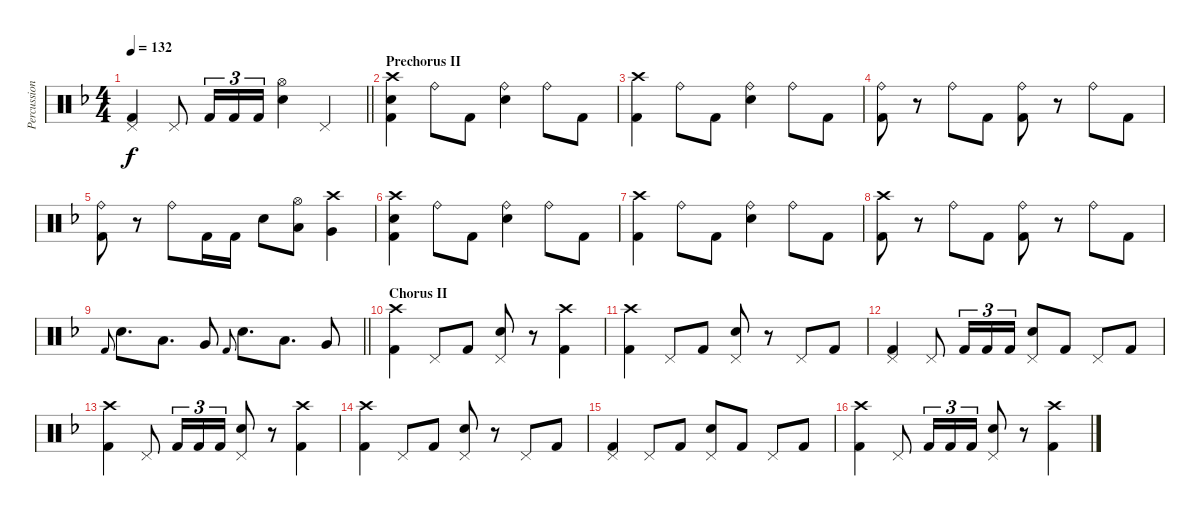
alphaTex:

\track ("Percussion" "Percussion") {instrument percussion}
\staff {score}
\articulation defaults
\ts (4 4)
\tempo 132
\clef neutral
\barLineRight lightlight
\ks dminor
("Pedal Hi-Hat (hit)" "Kick (hit) 2").4{dy f} "Pedal Hi-Hat (hit)".8 "Kick (hit) 2".16{tu (3 2)} "Kick (hit) 2".16{tu (3 2)} "Kick (hit) 2".16{tu (3 2)} ("Hi-Hat (open)" "Electric Snare (hit)").4 "Pedal Hi-Hat (hit)".4 |
\section ("" "Prechorus II")
("Crash high (hit)" "Electric Snare (hit)" "Kick (hit) 2").4 "Ride (bell)".8 "Kick (hit) 2".8 ("Ride (bell)" "Electric Snare (hit)").4 "Ride (bell)".8 "Kick (hit) 2".8 |
("Crash high (hit)" "Kick (hit) 2").4 "Ride (bell)".8 "Kick (hit) 2".8 ("Ride (bell)" "Electric Snare (hit)").4 "Ride (bell)".8 "Kick (hit) 2".8 |
("Ride (bell)" "Kick (hit) 2").8 r.8 "Ride (bell)".8 "Kick (hit) 2".8 ("Ride (bell)" "Kick (hit) 2").8 r.8 "Ride (bell)".8 "Kick (hit) 2".8 |
("Ride (bell)" "Kick (hit) 2").8 r.8 "Ride (bell)".8 "Kick (hit) 2".16 "Kick (hit) 2".16 "Electric Snare (hit)".8 ("Hi-Hat (open)" "Low Tom (hit)").8 ("Crash high (hit)" "Very Low Tom (hit)").4 |
("Crash high (hit)" "Electric Snare (hit)" "Kick (hit) 2").4 "Ride (bell)".8 "Kick (hit) 2".8 ("Ride (bell)" "Electric Snare (hit)").4 "Ride (bell)".8 "Kick (hit) 2".8 |
("Crash high (hit)" "Kick (hit) 2").4 "Ride (bell)".8 "Kick (hit) 2".8 ("Ride (bell)" "Electric Snare (hit)").4 "Ride (bell)".8 "Kick (hit) 2".8 |
("Crash high (hit)" "Kick (hit) 2").8 r.8 "Ride (bell)".8 "Kick (hit) 2".8 ("Ride (bell)" "Kick (hit) 2").8 r.8 "Ride (bell)".8 "Kick (hit) 2".8 |
\barLineRight lightlight "Kick (hit) 2".8{gr onbeat} "Electric Snare (hit)".8{d} "Low Tom (hit)".8{d} "Very Low Tom (hit)".8 "Kick (hit) 2".8{gr onbeat} "Electric Snare (hit)".8{d} "Low Tom (hit)".8{d} "Very Low Tom (hit)".8
|
\section ("" "Chorus II")
("Crash high (hit)" "Kick (hit) 2").4 "Pedal Hi-Hat (hit)".8 "Kick (hit) 2".8 ("Pedal Hi-Hat (hit)" "Electric Snare (hit)").8 r.8 ("Crash high (hit)" "Kick (hit) 2").4 |
("Crash high (hit)" "Kick (hit) 2").4 "Pedal Hi-Hat (hit)".8 "Kick (hit) 2".8 ("Pedal Hi-Hat (hit)" "Electric Snare (hit)").8 r.8 "Pedal Hi-Hat (hit)".8 "Kick (hit) 2".8 |
("Pedal Hi-Hat (hit)" "Kick (hit) 2").4 "Pedal Hi-Hat (hit)".8 "Kick (hit) 2".16{tu (3 2)} "Kick (hit) 2".16{tu (3 2)} "Kick (hit) 2".16{tu (3 2)} ("Pedal Hi-Hat (hit)" "Electric Snare (hit)").8 "Kick (hit) 2".8 "Pedal Hi-Hat (hit)".8 "Kick (hit) 2".8 |
("Crash high (hit)" "Kick (hit) 2").4 "Pedal Hi-Hat (hit)".8 "Kick (hit) 2".16{tu (3 2)} "Kick (hit) 2".16{tu (3 2)} "Kick (hit) 2".16{tu (3 2)} ("Pedal Hi-Hat (hit)" "Electric Snare (hit)").8 r.8 ("Crash high (hit)" "Kick (hit) 2").4 |
("Crash high (hit)" "Kick (hit) 2").4 "Pedal Hi-Hat (hit)".8 "Kick (hit) 2".8 ("Pedal Hi-Hat (hit)" "Electric Snare (hit)").8 r.8 "Pedal Hi-Hat (hit)".8 "Kick (hit) 2".8 |
("Pedal Hi-Hat (hit)" "Kick (hit) 2").4 "Pedal Hi-Hat (hit)".8 "Kick (hit) 2".8 ("Pedal Hi-Hat (hit)" "Electric Snare (hit)").8 "Kick (hit) 2".8 "Pedal Hi-Hat (hit)".8 "Kick (hit) 2".8 |
("Crash high (hit)" "Kick (hit) 2").4 "Pedal Hi-Hat (hit)".8 "Kick (hit) 2".16{tu (3 2)} "Kick (hit) 2".16{tu (3 2)} "Kick (hit) 2".16{tu (3 2)} ("Pedal Hi-Hat (hit)" "Electric Snare (hit)").8 r.8 ("Crash high (hit)" "Kick (hit) 2").4
